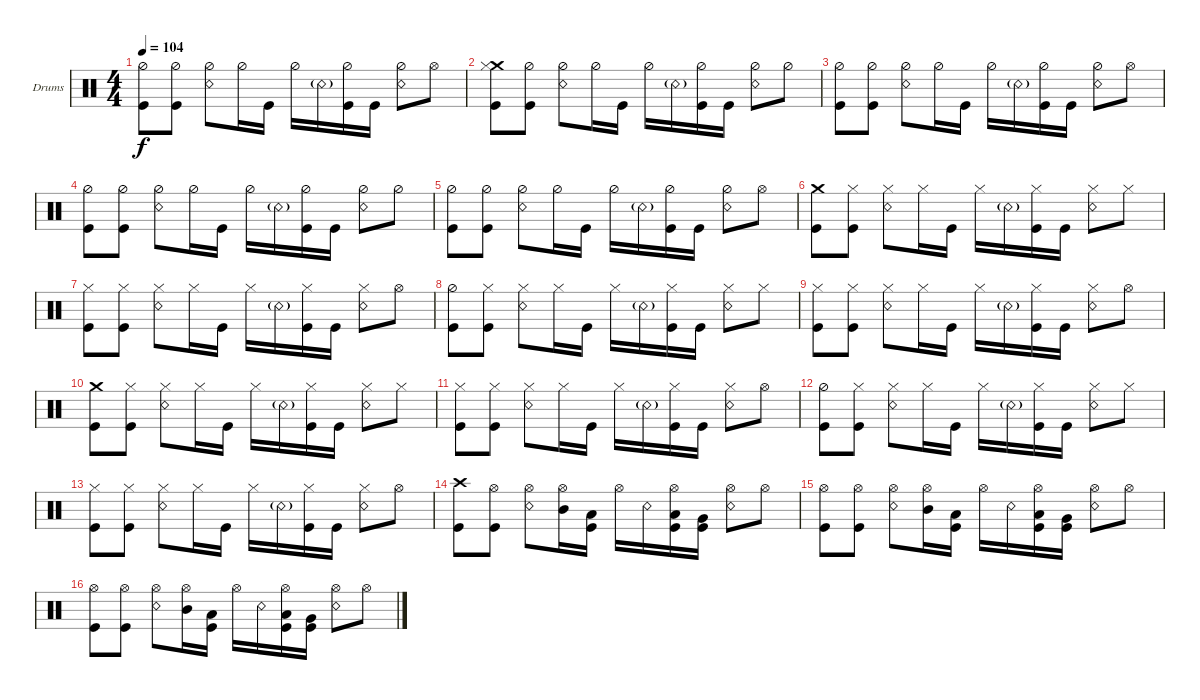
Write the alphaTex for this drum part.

\defaultSystemsLayout 4
\bracketExtendMode groupsimilarinstruments
\firstSystemTrackNameOrientation horizontal
\otherSystemsTrackNameOrientation horizontal
\track ("Drumkit" "Drums") {instrument percussion}
\staff {score}
\articulation defaults
\ts (4 4)
\tempo 104
\clef neutral
\ks c
("Kick (hit)" "Hi-Hat (half)").8{dy f} ("Kick (hit)" "Hi-Hat (half)").8 ("Snare (rim shot)" "Hi-Hat (half)").8 "Hi-Hat (half)".16 "Kick (hit)".16 "Hi-Hat (half)".16 "Snare (rim shot)"{g}.16 ("Kick (hit)" "Hi-Hat (half)").16 "Kick (hit)".16 ("Snare (rim shot)" "Hi-Hat (half)").8 "Hi-Hat (open)".8 |
("Crash medium (hit)" "Kick (hit)" "Hi-Hat (closed)").8 ("Kick (hit)" "Hi-Hat (half)").8 ("Snare (rim shot)" "Hi-Hat (half)").8 "Hi-Hat (half)".16 "Kick (hit)".16 "Hi-Hat (half)".16 "Snare (rim shot)"{g}.16 ("Kick (hit)" "Hi-Hat (half)").16 "Kick (hit)".16 ("Hi-Hat (half)" "Snare (rim shot)").8 "Hi-Hat (half)".8 |
("Kick (hit)" "Hi-Hat (half)").8 ("Kick (hit)" "Hi-Hat (half)").8 ("Snare (rim shot)" "Hi-Hat (half)").8 "Hi-Hat (half)".16 "Kick (hit)".16 "Hi-Hat (half)".16 "Snare (rim shot)"{g}.16 ("Kick (hit)" "Hi-Hat (half)").16 "Kick (hit)".16 ("Snare (rim shot)" "Hi-Hat (half)").8 "Hi-Hat (open)".8 |
("Kick (hit)" "Hi-Hat (half)").8 ("Kick (hit)" "Hi-Hat (half)").8 ("Snare (rim shot)" "Hi-Hat (half)").8 "Hi-Hat (half)".16 "Kick (hit)".16 "Hi-Hat (half)".16 "Snare (rim shot)"{g}.16 ("Kick (hit)" "Hi-Hat (half)").16 "Kick (hit)".16 ("Hi-Hat (half)" "Snare (rim shot)").8 "Hi-Hat (half)".8 |
("Kick (hit)" "Hi-Hat (half)").8 ("Kick (hit)" "Hi-Hat (half)").8 ("Snare (rim shot)" "Hi-Hat (half)").8 "Hi-Hat (half)".16 "Kick (hit)".16 "Hi-Hat (half)".16 "Snare (rim shot)"{g}.16 ("Kick (hit)" "Hi-Hat (half)").16 "Kick (hit)".16 ("Snare (rim shot)" "Hi-Hat (half)").8 "Hi-Hat (open)".8 |
("Crash medium (hit)" "Kick (hit)").8 ("Kick (hit)" "Hi-Hat (closed)").8 ("Snare (rim shot)" "Hi-Hat (closed)").8 "Hi-Hat (closed)".16 "Kick (hit)".16 "Hi-Hat (closed)".16 "Snare (rim shot)"{g}.16 ("Kick (hit)" "Hi-Hat (closed)").16 "Kick (hit)".16 ("Hi-Hat (closed)" "Snare (rim shot)").8 "Hi-Hat (closed)".8 |
("Kick (hit)" "Hi-Hat (closed)").8 ("Kick (hit)" "Hi-Hat (closed)").8 ("Snare (rim shot)" "Hi-Hat (closed)").8 "Hi-Hat (closed)".16 "Kick (hit)".16 "Hi-Hat (closed)".16 "Snare (rim shot)"{g}.16 ("Kick (hit)" "Hi-Hat (closed)").16 "Kick (hit)".16 ("Snare (rim shot)" "Hi-Hat (closed)").8 "Hi-Hat (open)".8 |
("Kick (hit)" "Hi-Hat (half)").8 ("Kick (hit)" "Hi-Hat (closed)").8 ("Snare (rim shot)" "Hi-Hat (closed)").8 "Hi-Hat (closed)".16 "Kick (hit)".16 "Hi-Hat (closed)".16 "Snare (rim shot)"{g}.16 ("Kick (hit)" "Hi-Hat (closed)").16 "Kick (hit)".16 ("Hi-Hat (closed)" "Snare (rim shot)").8 "Hi-Hat (closed)".8 |
("Kick (hit)" "Hi-Hat (closed)").8 ("Kick (hit)" "Hi-Hat (closed)").8 ("Snare (rim shot)" "Hi-Hat (closed)").8 "Hi-Hat (closed)".16 "Kick (hit)".16 "Hi-Hat (closed)".16 "Snare (rim shot)"{g}.16 ("Kick (hit)" "Hi-Hat (closed)").16 "Kick (hit)".16 ("Snare (rim shot)" "Hi-Hat (closed)").8 "Hi-Hat (open)".8 |
("Crash medium (hit)" "Kick (hit)").8 ("Kick (hit)" "Hi-Hat (closed)").8 ("Snare (rim shot)" "Hi-Hat (closed)").8 "Hi-Hat (closed)".16 "Kick (hit)".16 "Hi-Hat (closed)".16 "Snare (rim shot)"{g}.16 ("Kick (hit)" "Hi-Hat (closed)").16 "Kick (hit)".16 ("Hi-Hat (closed)" "Snare (rim shot)").8 "Hi-Hat (closed)".8 |
("Kick (hit)" "Hi-Hat (closed)").8 ("Kick (hit)" "Hi-Hat (closed)").8 ("Snare (rim shot)" "Hi-Hat (closed)").8 "Hi-Hat (closed)".16 "Kick (hit)".16 "Hi-Hat (closed)".16 "Snare (rim shot)"{g}.16 ("Kick (hit)" "Hi-Hat (closed)").16 "Kick (hit)".16 ("Snare (rim shot)" "Hi-Hat (closed)").8 "Hi-Hat (open)".8 |
("Kick (hit)" "Hi-Hat (half)").8 ("Kick (hit)" "Hi-Hat (closed)").8 ("Snare (rim shot)" "Hi-Hat (closed)").8 "Hi-Hat (closed)".16 "Kick (hit)".16 "Hi-Hat (closed)".16 "Snare (rim shot)"{g}.16 ("Kick (hit)" "Hi-Hat (closed)").16 "Kick (hit)".16 ("Hi-Hat (closed)" "Snare (rim shot)").8 "Hi-Hat (closed)".8 |
("Kick (hit)" "Hi-Hat (closed)").8 ("Kick (hit)" "Hi-Hat (closed)").8 ("Snare (rim shot)" "Hi-Hat (closed)").8 "Hi-Hat (closed)".16 "Kick (hit)".16 "Hi-Hat (closed)".16 "Snare (rim shot)"{g}.16 ("Kick (hit)" "Hi-Hat (closed)").16 "Kick (hit)".16 ("Snare (rim shot)" "Hi-Hat (closed)").8 "Hi-Hat (open)".8 |
("Kick (hit)" "Crash high (hit)").8 ("Kick (hit)" "Hi-Hat (open)").8 ("Snare (rim shot)" "Hi-Hat (open)").8 ("Mid Tom (hit)" "Hi-Hat (open)").16 ("Low Tom (hit)" "Kick (hit)").16 "Hi-Hat (open)".16 "Snare (rim shot)".16 ("Low Tom (hit)" "Kick (hit)" "Hi-Hat (open)").16 ("Very Low Tom (hit)" "Kick (hit)").16 ("Snare (rim shot)" "Hi-Hat (open)").8 "Hi-Hat (open)".8 |
("Kick (hit)" "Hi-Hat (open)").8 ("Kick (hit)" "Hi-Hat (open)").8 ("Snare (rim shot)" "Hi-Hat (open)").8 ("Mid Tom (hit)" "Hi-Hat (open)").16 ("Low Tom (hit)" "Kick (hit)").16 "Hi-Hat (open)".16 "Snare (rim shot)".16 ("Low Tom (hit)" "Kick (hit)" "Hi-Hat (open)").16 ("Very Low Tom (hit)" "Kick (hit)").16 ("Snare (rim shot)" "Hi-Hat (open)").8 "Hi-Hat (open)".8 |
("Kick (hit)" "Hi-Hat (open)").8 ("Kick (hit)" "Hi-Hat (open)").8 ("Snare (rim shot)" "Hi-Hat (open)").8 ("Mid Tom (hit)" "Hi-Hat (open)").16 ("Low Tom (hit)" "Kick (hit)").16 "Hi-Hat (open)".16 "Snare (rim shot)".16 ("Low Tom (hit)" "Kick (hit)" "Hi-Hat (open)").16 ("Very Low Tom (hit)" "Kick (hit)").16 ("Snare (rim shot)" "Hi-Hat (open)").8 "Hi-Hat (open)".8
